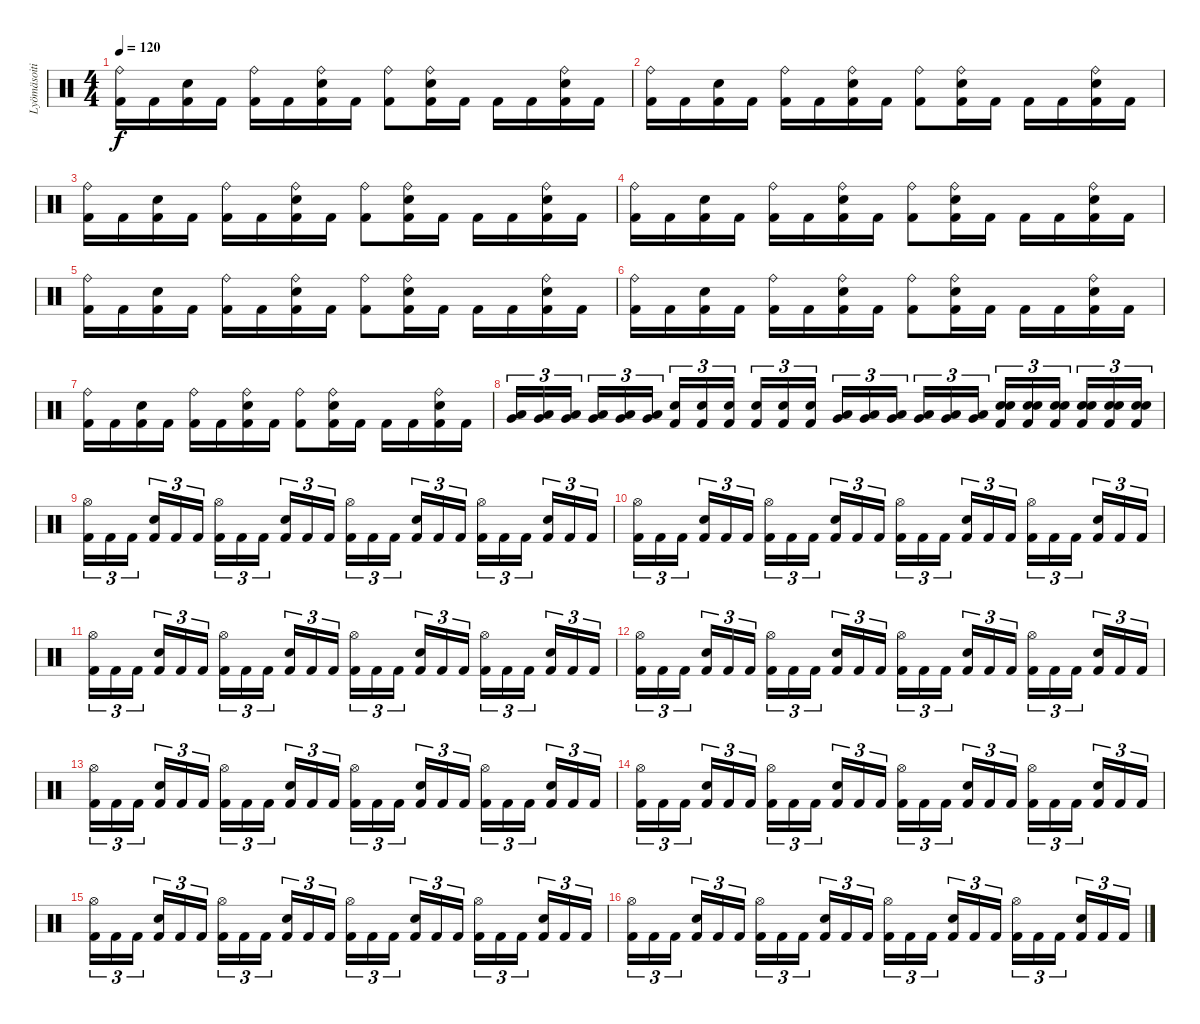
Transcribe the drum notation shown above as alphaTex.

\track ("Lyömäsoitin" "Lyömäsoiti") {instrument percussion}
\staff {score}
\articulation defaults
\ts (4 4)
\tempo 120
\clef neutral
\ks c
("Ride (bell)" "Kick (hit) 2").16{dy f} "Kick (hit) 2".16 ("Electric Snare (hit)" "Kick (hit) 2").16 "Kick (hit) 2".16 ("Ride (bell)" "Kick (hit) 2").16 "Kick (hit) 2".16 ("Ride (bell)" "Electric Snare (hit)" "Kick (hit) 2").16 "Kick (hit) 2".16 ("Ride (bell)" "Kick (hit) 2").8 ("Ride (bell)" "Electric Snare (hit)" "Kick (hit) 2").16 "Kick (hit) 2".16 "Kick (hit) 2".16 "Kick (hit) 2".16 ("Ride (bell)" "Electric Snare (hit)" "Kick (hit) 2").16 "Kick (hit) 2".16 |
("Ride (bell)" "Kick (hit) 2").16 "Kick (hit) 2".16 ("Electric Snare (hit)" "Kick (hit) 2").16 "Kick (hit) 2".16 ("Ride (bell)" "Kick (hit) 2").16 "Kick (hit) 2".16 ("Ride (bell)" "Electric Snare (hit)" "Kick (hit) 2").16 "Kick (hit) 2".16 ("Ride (bell)" "Kick (hit) 2").8 ("Ride (bell)" "Electric Snare (hit)" "Kick (hit) 2").16 "Kick (hit) 2".16 "Kick (hit) 2".16 "Kick (hit) 2".16 ("Ride (bell)" "Electric Snare (hit)" "Kick (hit) 2").16 "Kick (hit) 2".16 |
("Ride (bell)" "Kick (hit) 2").16 "Kick (hit) 2".16 ("Electric Snare (hit)" "Kick (hit) 2").16 "Kick (hit) 2".16 ("Ride (bell)" "Kick (hit) 2").16 "Kick (hit) 2".16 ("Ride (bell)" "Electric Snare (hit)" "Kick (hit) 2").16 "Kick (hit) 2".16 ("Ride (bell)" "Kick (hit) 2").8 ("Ride (bell)" "Electric Snare (hit)" "Kick (hit) 2").16 "Kick (hit) 2".16 "Kick (hit) 2".16 "Kick (hit) 2".16 ("Ride (bell)" "Electric Snare (hit)" "Kick (hit) 2").16 "Kick (hit) 2".16 |
("Ride (bell)" "Kick (hit) 2").16 "Kick (hit) 2".16 ("Electric Snare (hit)" "Kick (hit) 2").16 "Kick (hit) 2".16 ("Ride (bell)" "Kick (hit) 2").16 "Kick (hit) 2".16 ("Ride (bell)" "Electric Snare (hit)" "Kick (hit) 2").16 "Kick (hit) 2".16 ("Ride (bell)" "Kick (hit) 2").8 ("Ride (bell)" "Electric Snare (hit)" "Kick (hit) 2").16 "Kick (hit) 2".16 "Kick (hit) 2".16 "Kick (hit) 2".16 ("Ride (bell)" "Electric Snare (hit)" "Kick (hit) 2").16 "Kick (hit) 2".16 |
("Ride (bell)" "Kick (hit) 2").16 "Kick (hit) 2".16 ("Electric Snare (hit)" "Kick (hit) 2").16 "Kick (hit) 2".16 ("Ride (bell)" "Kick (hit) 2").16 "Kick (hit) 2".16 ("Ride (bell)" "Electric Snare (hit)" "Kick (hit) 2").16 "Kick (hit) 2".16 ("Ride (bell)" "Kick (hit) 2").8 ("Ride (bell)" "Electric Snare (hit)" "Kick (hit) 2").16 "Kick (hit) 2".16 "Kick (hit) 2".16 "Kick (hit) 2".16 ("Ride (bell)" "Electric Snare (hit)" "Kick (hit) 2").16 "Kick (hit) 2".16 |
("Ride (bell)" "Kick (hit) 2").16 "Kick (hit) 2".16 ("Electric Snare (hit)" "Kick (hit) 2").16 "Kick (hit) 2".16 ("Ride (bell)" "Kick (hit) 2").16 "Kick (hit) 2".16 ("Ride (bell)" "Electric Snare (hit)" "Kick (hit) 2").16 "Kick (hit) 2".16 ("Ride (bell)" "Kick (hit) 2").8 ("Ride (bell)" "Electric Snare (hit)" "Kick (hit) 2").16 "Kick (hit) 2".16 "Kick (hit) 2".16 "Kick (hit) 2".16 ("Ride (bell)" "Electric Snare (hit)" "Kick (hit) 2").16 "Kick (hit) 2".16 |
("Ride (bell)" "Kick (hit) 2").16 "Kick (hit) 2".16 ("Electric Snare (hit)" "Kick (hit) 2").16 "Kick (hit) 2".16 ("Ride (bell)" "Kick (hit) 2").16 "Kick (hit) 2".16 ("Ride (bell)" "Electric Snare (hit)" "Kick (hit) 2").16 "Kick (hit) 2".16 ("Ride (bell)" "Kick (hit) 2").8 ("Ride (bell)" "Electric Snare (hit)" "Kick (hit) 2").16 "Kick (hit) 2".16 "Kick (hit) 2".16 "Kick (hit) 2".16 ("Ride (bell)" "Electric Snare (hit)" "Kick (hit) 2").16 "Kick (hit) 2".16 |
("Low Tom (hit)" "Very Low Tom (hit)").16{tu (3 2)} ("Low Tom (hit)" "Very Low Tom (hit)").16{tu (3 2)} ("Low Tom (hit)" "Very Low Tom (hit)").16{tu (3 2) beam splitsecondary} ("Low Tom (hit)" "Very Low Tom (hit)").16{tu (3 2)} ("Low Tom (hit)" "Very Low Tom (hit)").16{tu (3 2)} ("Low Tom (hit)" "Very Low Tom (hit)").16{tu (3 2)} ("Electric Snare (hit)" "Kick (hit) 2").16{tu (3 2)} ("Electric Snare (hit)" "Kick (hit) 2").16{tu (3 2)} ("Electric Snare (hit)" "Kick (hit) 2").16{tu (3 2) beam splitsecondary} ("Electric Snare (hit)" "Kick (hit) 2").16{tu (3 2)} ("Electric Snare (hit)" "Kick (hit) 2").16{tu (3 2)} ("Electric Snare (hit)" "Kick (hit) 2").16{tu (3 2)} ("Low Tom (hit)" "Very Low Tom (hit)").16{tu (3 2)} ("Low Tom (hit)" "Very Low Tom (hit)").16{tu (3 2)} ("Low Tom (hit)" "Very Low Tom (hit)").16{tu (3 2) beam splitsecondary} ("Low Tom (hit)" "Very Low Tom (hit)").16{tu (3 2)} ("Low Tom (hit)" "Very Low Tom (hit)").16{tu (3 2)} ("Low Tom (hit)" "Very Low Tom (hit)").16{tu (3 2)} ("Electric Snare (hit)" "Snare (hit) 2" "Kick (hit) 2").16{tu (3 2)} ("Electric Snare (hit)" "Snare (hit) 2" "Kick (hit) 2").16{tu (3 2)} ("Electric Snare (hit)" "Snare (hit) 2" "Kick (hit) 2").16{tu (3 2) beam splitsecondary} ("Electric Snare (hit)" "Snare (hit) 2" "Kick (hit) 2").16{tu (3 2)} ("Electric Snare (hit)" "Snare (hit) 2" "Kick (hit) 2").16{tu (3 2)} ("Electric Snare (hit)" "Snare (hit) 2" "Kick (hit) 2").16{tu (3 2)} |
("Hi-Hat (open)" "Kick (hit) 2").16{tu (3 2)} "Kick (hit) 2".16{tu (3 2)} "Kick (hit) 2".16{tu (3 2) beam splitsecondary} ("Electric Snare (hit)" "Kick (hit) 2").16{tu (3 2)} "Kick (hit) 2".16{tu (3 2)} "Kick (hit) 2".16{tu (3 2)} ("Hi-Hat (open)" "Kick (hit) 2").16{tu (3 2)} "Kick (hit) 2".16{tu (3 2)} "Kick (hit) 2".16{tu (3 2) beam splitsecondary} ("Electric Snare (hit)" "Kick (hit) 2").16{tu (3 2)} "Kick (hit) 2".16{tu (3 2)} "Kick (hit) 2".16{tu (3 2)} ("Hi-Hat (open)" "Kick (hit) 2").16{tu (3 2)} "Kick (hit) 2".16{tu (3 2)} "Kick (hit) 2".16{tu (3 2) beam splitsecondary} ("Electric Snare (hit)" "Kick (hit) 2").16{tu (3 2)} "Kick (hit) 2".16{tu (3 2)} "Kick (hit) 2".16{tu (3 2)} ("Hi-Hat (open)" "Kick (hit) 2").16{tu (3 2)} "Kick (hit) 2".16{tu (3 2)} "Kick (hit) 2".16{tu (3 2) beam splitsecondary} ("Electric Snare (hit)" "Kick (hit) 2").16{tu (3 2)} "Kick (hit) 2".16{tu (3 2)} "Kick (hit) 2".16{tu (3 2)} |
("Hi-Hat (open)" "Kick (hit) 2").16{tu (3 2)} "Kick (hit) 2".16{tu (3 2)} "Kick (hit) 2".16{tu (3 2) beam splitsecondary} ("Electric Snare (hit)" "Kick (hit) 2").16{tu (3 2)} "Kick (hit) 2".16{tu (3 2)} "Kick (hit) 2".16{tu (3 2)} ("Hi-Hat (open)" "Kick (hit) 2").16{tu (3 2)} "Kick (hit) 2".16{tu (3 2)} "Kick (hit) 2".16{tu (3 2) beam splitsecondary} ("Electric Snare (hit)" "Kick (hit) 2").16{tu (3 2)} "Kick (hit) 2".16{tu (3 2)} "Kick (hit) 2".16{tu (3 2)} ("Hi-Hat (open)" "Kick (hit) 2").16{tu (3 2)} "Kick (hit) 2".16{tu (3 2)} "Kick (hit) 2".16{tu (3 2) beam splitsecondary} ("Electric Snare (hit)" "Kick (hit) 2").16{tu (3 2)} "Kick (hit) 2".16{tu (3 2)} "Kick (hit) 2".16{tu (3 2)} ("Hi-Hat (open)" "Kick (hit) 2").16{tu (3 2)} "Kick (hit) 2".16{tu (3 2)} "Kick (hit) 2".16{tu (3 2) beam splitsecondary} ("Electric Snare (hit)" "Kick (hit) 2").16{tu (3 2)} "Kick (hit) 2".16{tu (3 2)} "Kick (hit) 2".16{tu (3 2)} |
("Hi-Hat (open)" "Kick (hit) 2").16{tu (3 2)} "Kick (hit) 2".16{tu (3 2)} "Kick (hit) 2".16{tu (3 2) beam splitsecondary} ("Electric Snare (hit)" "Kick (hit) 2").16{tu (3 2)} "Kick (hit) 2".16{tu (3 2)} "Kick (hit) 2".16{tu (3 2)} ("Hi-Hat (open)" "Kick (hit) 2").16{tu (3 2)} "Kick (hit) 2".16{tu (3 2)} "Kick (hit) 2".16{tu (3 2) beam splitsecondary} ("Electric Snare (hit)" "Kick (hit) 2").16{tu (3 2)} "Kick (hit) 2".16{tu (3 2)} "Kick (hit) 2".16{tu (3 2)} ("Hi-Hat (open)" "Kick (hit) 2").16{tu (3 2)} "Kick (hit) 2".16{tu (3 2)} "Kick (hit) 2".16{tu (3 2) beam splitsecondary} ("Electric Snare (hit)" "Kick (hit) 2").16{tu (3 2)} "Kick (hit) 2".16{tu (3 2)} "Kick (hit) 2".16{tu (3 2)} ("Hi-Hat (open)" "Kick (hit) 2").16{tu (3 2)} "Kick (hit) 2".16{tu (3 2)} "Kick (hit) 2".16{tu (3 2) beam splitsecondary} ("Electric Snare (hit)" "Kick (hit) 2").16{tu (3 2)} "Kick (hit) 2".16{tu (3 2)} "Kick (hit) 2".16{tu (3 2)} |
("Hi-Hat (open)" "Kick (hit) 2").16{tu (3 2)} "Kick (hit) 2".16{tu (3 2)} "Kick (hit) 2".16{tu (3 2) beam splitsecondary} ("Electric Snare (hit)" "Kick (hit) 2").16{tu (3 2)} "Kick (hit) 2".16{tu (3 2)} "Kick (hit) 2".16{tu (3 2)} ("Hi-Hat (open)" "Kick (hit) 2").16{tu (3 2)} "Kick (hit) 2".16{tu (3 2)} "Kick (hit) 2".16{tu (3 2) beam splitsecondary} ("Electric Snare (hit)" "Kick (hit) 2").16{tu (3 2)} "Kick (hit) 2".16{tu (3 2)} "Kick (hit) 2".16{tu (3 2)} ("Hi-Hat (open)" "Kick (hit) 2").16{tu (3 2)} "Kick (hit) 2".16{tu (3 2)} "Kick (hit) 2".16{tu (3 2) beam splitsecondary} ("Electric Snare (hit)" "Kick (hit) 2").16{tu (3 2)} "Kick (hit) 2".16{tu (3 2)} "Kick (hit) 2".16{tu (3 2)} ("Hi-Hat (open)" "Kick (hit) 2").16{tu (3 2)} "Kick (hit) 2".16{tu (3 2)} "Kick (hit) 2".16{tu (3 2) beam splitsecondary} ("Electric Snare (hit)" "Kick (hit) 2").16{tu (3 2)} "Kick (hit) 2".16{tu (3 2)} "Kick (hit) 2".16{tu (3 2)} |
("Hi-Hat (open)" "Kick (hit) 2").16{tu (3 2)} "Kick (hit) 2".16{tu (3 2)} "Kick (hit) 2".16{tu (3 2) beam splitsecondary} ("Electric Snare (hit)" "Kick (hit) 2").16{tu (3 2)} "Kick (hit) 2".16{tu (3 2)} "Kick (hit) 2".16{tu (3 2)} ("Hi-Hat (open)" "Kick (hit) 2").16{tu (3 2)} "Kick (hit) 2".16{tu (3 2)} "Kick (hit) 2".16{tu (3 2) beam splitsecondary} ("Electric Snare (hit)" "Kick (hit) 2").16{tu (3 2)} "Kick (hit) 2".16{tu (3 2)} "Kick (hit) 2".16{tu (3 2)} ("Hi-Hat (open)" "Kick (hit) 2").16{tu (3 2)} "Kick (hit) 2".16{tu (3 2)} "Kick (hit) 2".16{tu (3 2) beam splitsecondary} ("Electric Snare (hit)" "Kick (hit) 2").16{tu (3 2)} "Kick (hit) 2".16{tu (3 2)} "Kick (hit) 2".16{tu (3 2)} ("Hi-Hat (open)" "Kick (hit) 2").16{tu (3 2)} "Kick (hit) 2".16{tu (3 2)} "Kick (hit) 2".16{tu (3 2) beam splitsecondary} ("Electric Snare (hit)" "Kick (hit) 2").16{tu (3 2)} "Kick (hit) 2".16{tu (3 2)} "Kick (hit) 2".16{tu (3 2)} |
("Hi-Hat (open)" "Kick (hit) 2").16{tu (3 2)} "Kick (hit) 2".16{tu (3 2)} "Kick (hit) 2".16{tu (3 2) beam splitsecondary} ("Electric Snare (hit)" "Kick (hit) 2").16{tu (3 2)} "Kick (hit) 2".16{tu (3 2)} "Kick (hit) 2".16{tu (3 2)} ("Hi-Hat (open)" "Kick (hit) 2").16{tu (3 2)} "Kick (hit) 2".16{tu (3 2)} "Kick (hit) 2".16{tu (3 2) beam splitsecondary} ("Electric Snare (hit)" "Kick (hit) 2").16{tu (3 2)} "Kick (hit) 2".16{tu (3 2)} "Kick (hit) 2".16{tu (3 2)} ("Hi-Hat (open)" "Kick (hit) 2").16{tu (3 2)} "Kick (hit) 2".16{tu (3 2)} "Kick (hit) 2".16{tu (3 2) beam splitsecondary} ("Electric Snare (hit)" "Kick (hit) 2").16{tu (3 2)} "Kick (hit) 2".16{tu (3 2)} "Kick (hit) 2".16{tu (3 2)} ("Hi-Hat (open)" "Kick (hit) 2").16{tu (3 2)} "Kick (hit) 2".16{tu (3 2)} "Kick (hit) 2".16{tu (3 2) beam splitsecondary} ("Electric Snare (hit)" "Kick (hit) 2").16{tu (3 2)} "Kick (hit) 2".16{tu (3 2)} "Kick (hit) 2".16{tu (3 2)} |
("Hi-Hat (open)" "Kick (hit) 2").16{tu (3 2)} "Kick (hit) 2".16{tu (3 2)} "Kick (hit) 2".16{tu (3 2) beam splitsecondary} ("Electric Snare (hit)" "Kick (hit) 2").16{tu (3 2)} "Kick (hit) 2".16{tu (3 2)} "Kick (hit) 2".16{tu (3 2)} ("Hi-Hat (open)" "Kick (hit) 2").16{tu (3 2)} "Kick (hit) 2".16{tu (3 2)} "Kick (hit) 2".16{tu (3 2) beam splitsecondary} ("Electric Snare (hit)" "Kick (hit) 2").16{tu (3 2)} "Kick (hit) 2".16{tu (3 2)} "Kick (hit) 2".16{tu (3 2)} ("Hi-Hat (open)" "Kick (hit) 2").16{tu (3 2)} "Kick (hit) 2".16{tu (3 2)} "Kick (hit) 2".16{tu (3 2) beam splitsecondary} ("Electric Snare (hit)" "Kick (hit) 2").16{tu (3 2)} "Kick (hit) 2".16{tu (3 2)} "Kick (hit) 2".16{tu (3 2)} ("Hi-Hat (open)" "Kick (hit) 2").16{tu (3 2)} "Kick (hit) 2".16{tu (3 2)} "Kick (hit) 2".16{tu (3 2) beam splitsecondary} ("Electric Snare (hit)" "Kick (hit) 2").16{tu (3 2)} "Kick (hit) 2".16{tu (3 2)} "Kick (hit) 2".16{tu (3 2)} |
("Hi-Hat (open)" "Kick (hit) 2").16{tu (3 2)} "Kick (hit) 2".16{tu (3 2)} "Kick (hit) 2".16{tu (3 2) beam splitsecondary} ("Electric Snare (hit)" "Kick (hit) 2").16{tu (3 2)} "Kick (hit) 2".16{tu (3 2)} "Kick (hit) 2".16{tu (3 2)} ("Hi-Hat (open)" "Kick (hit) 2").16{tu (3 2)} "Kick (hit) 2".16{tu (3 2)} "Kick (hit) 2".16{tu (3 2) beam splitsecondary} ("Electric Snare (hit)" "Kick (hit) 2").16{tu (3 2)} "Kick (hit) 2".16{tu (3 2)} "Kick (hit) 2".16{tu (3 2)} ("Hi-Hat (open)" "Kick (hit) 2").16{tu (3 2)} "Kick (hit) 2".16{tu (3 2)} "Kick (hit) 2".16{tu (3 2) beam splitsecondary} ("Electric Snare (hit)" "Kick (hit) 2").16{tu (3 2)} "Kick (hit) 2".16{tu (3 2)} "Kick (hit) 2".16{tu (3 2)} ("Hi-Hat (open)" "Kick (hit) 2").16{tu (3 2)} "Kick (hit) 2".16{tu (3 2)} "Kick (hit) 2".16{tu (3 2) beam splitsecondary} ("Electric Snare (hit)" "Kick (hit) 2").16{tu (3 2)} "Kick (hit) 2".16{tu (3 2)} "Kick (hit) 2".16{tu (3 2)}
